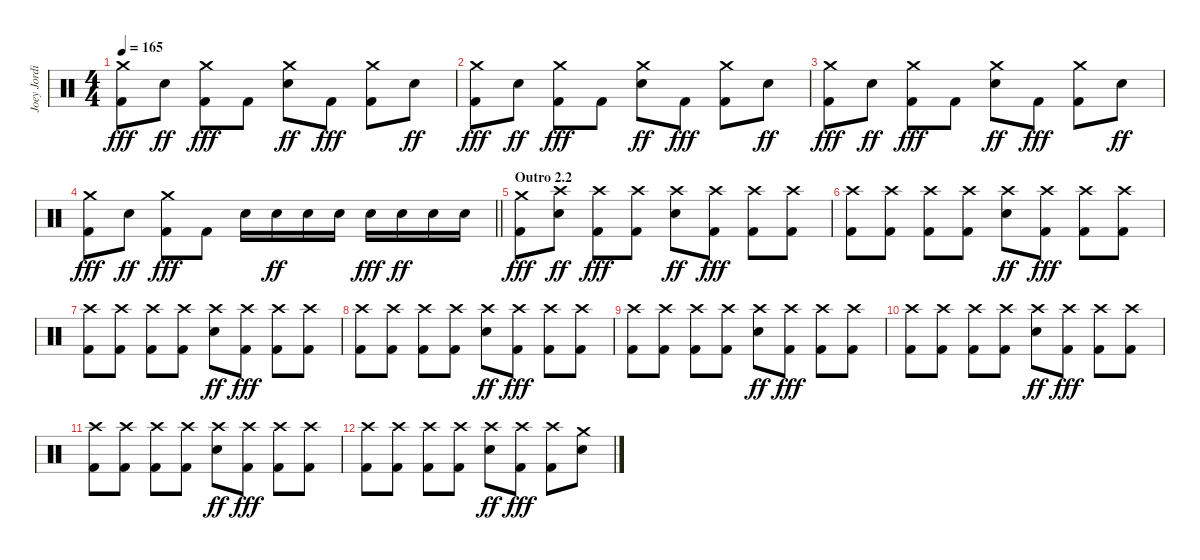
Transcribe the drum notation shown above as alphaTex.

\track ("Joey Jordison" "Joey Jordi") {instrument percussion}
\staff {score}
\articulation defaults
\ts (4 4)
\tempo 165
\clef neutral
\ks c
("Crash medium (hit)" "Kick (hit) 2").8{dy fff} "Electric Snare (hit)".8{dy ff} ("Crash medium (hit)" "Kick (hit) 2").8{dy fff} "Kick (hit) 2".8 ("Crash medium (hit)" "Electric Snare (hit)").8{dy ff} "Kick (hit) 2".8{dy fff} ("Crash medium (hit)" "Kick (hit) 2").8 "Electric Snare (hit)".8{dy ff} |
("Crash medium (hit)" "Kick (hit) 2").8{dy fff} "Electric Snare (hit)".8{dy ff} ("Crash medium (hit)" "Kick (hit) 2").8{dy fff} "Kick (hit) 2".8 ("Crash medium (hit)" "Electric Snare (hit)").8{dy ff} "Kick (hit) 2".8{dy fff} ("Crash medium (hit)" "Kick (hit) 2").8 "Electric Snare (hit)".8{dy ff} |
("Crash medium (hit)" "Kick (hit) 2").8{dy fff} "Electric Snare (hit)".8{dy ff} ("Crash medium (hit)" "Kick (hit) 2").8{dy fff} "Kick (hit) 2".8 ("Crash medium (hit)" "Electric Snare (hit)").8{dy ff} "Kick (hit) 2".8{dy fff} ("Crash medium (hit)" "Kick (hit) 2").8 "Electric Snare (hit)".8{dy ff} |
\barLineRight lightlight
("Crash medium (hit)" "Kick (hit) 2").8{dy fff} "Electric Snare (hit)".8{dy ff} ("Crash medium (hit)" "Kick (hit) 2").8{dy fff} "Kick (hit) 2".8 "Electric Snare (hit)".16 "Electric Snare (hit)".16{dy ff} "Electric Snare (hit)".16 "Electric Snare (hit)".16 "Electric Snare (hit)".16{dy fff} "Electric Snare (hit)".16{dy ff} "Electric Snare (hit)".16 "Electric Snare (hit)".16 |
\section ("" "Outro 2.2")
("Crash medium (hit)" "Kick (hit) 2").8{dy fff} ("Crash high (hit)" "Electric Snare (hit)").8{dy ff} ("Crash high (hit)" "Kick (hit) 2").8{dy fff} ("Crash high (hit)" "Kick (hit) 2").8 ("Crash high (hit)" "Electric Snare (hit)").8{dy ff} ("Crash high (hit)" "Kick (hit) 2").8{dy fff} ("Crash high (hit)" "Kick (hit) 2").8 ("Crash high (hit)" "Kick (hit) 2").8 |
("Crash high (hit)" "Kick (hit) 2").8 ("Crash high (hit)" "Kick (hit) 2").8 ("Crash high (hit)" "Kick (hit) 2").8 ("Crash high (hit)" "Kick (hit) 2").8 ("Crash high (hit)" "Electric Snare (hit)").8{dy ff} ("Crash high (hit)" "Kick (hit) 2").8{dy fff} ("Crash high (hit)" "Kick (hit) 2").8 ("Crash high (hit)" "Kick (hit) 2").8 |
("Crash high (hit)" "Kick (hit) 2").8 ("Crash high (hit)" "Kick (hit) 2").8 ("Crash high (hit)" "Kick (hit) 2").8 ("Crash high (hit)" "Kick (hit) 2").8 ("Crash high (hit)" "Electric Snare (hit)").8{dy ff} ("Crash high (hit)" "Kick (hit) 2").8{dy fff} ("Crash high (hit)" "Kick (hit) 2").8 ("Crash high (hit)" "Kick (hit) 2").8 |
("Crash high (hit)" "Kick (hit) 2").8 ("Crash high (hit)" "Kick (hit) 2").8 ("Crash high (hit)" "Kick (hit) 2").8 ("Crash high (hit)" "Kick (hit) 2").8 ("Crash high (hit)" "Electric Snare (hit)").8{dy ff} ("Crash high (hit)" "Kick (hit) 2").8{dy fff} ("Crash high (hit)" "Kick (hit) 2").8 ("Crash high (hit)" "Kick (hit) 2").8 |
("Crash high (hit)" "Kick (hit) 2").8 ("Crash high (hit)" "Kick (hit) 2").8 ("Crash high (hit)" "Kick (hit) 2").8 ("Crash high (hit)" "Kick (hit) 2").8 ("Crash high (hit)" "Electric Snare (hit)").8{dy ff} ("Crash high (hit)" "Kick (hit) 2").8{dy fff} ("Crash high (hit)" "Kick (hit) 2").8 ("Crash high (hit)" "Kick (hit) 2").8 |
("Crash high (hit)" "Kick (hit) 2").8 ("Crash high (hit)" "Kick (hit) 2").8 ("Crash high (hit)" "Kick (hit) 2").8 ("Crash high (hit)" "Kick (hit) 2").8 ("Crash high (hit)" "Electric Snare (hit)").8{dy ff} ("Crash high (hit)" "Kick (hit) 2").8{dy fff} ("Crash high (hit)" "Kick (hit) 2").8 ("Crash high (hit)" "Kick (hit) 2").8 |
("Crash high (hit)" "Kick (hit) 2").8 ("Crash high (hit)" "Kick (hit) 2").8 ("Crash high (hit)" "Kick (hit) 2").8 ("Crash high (hit)" "Kick (hit) 2").8 ("Crash high (hit)" "Electric Snare (hit)").8{dy ff} ("Crash high (hit)" "Kick (hit) 2").8{dy fff} ("Crash high (hit)" "Kick (hit) 2").8 ("Crash high (hit)" "Kick (hit) 2").8 |
("Crash high (hit)" "Kick (hit) 2").8 ("Crash high (hit)" "Kick (hit) 2").8 ("Crash high (hit)" "Kick (hit) 2").8 ("Crash high (hit)" "Kick (hit) 2").8 ("Crash high (hit)" "Electric Snare (hit)").8{dy ff} ("Crash high (hit)" "Kick (hit) 2").8{dy fff} ("Crash high (hit)" "Kick (hit) 2").8 ("Crash medium (hit)" "Electric Snare (hit)").8
